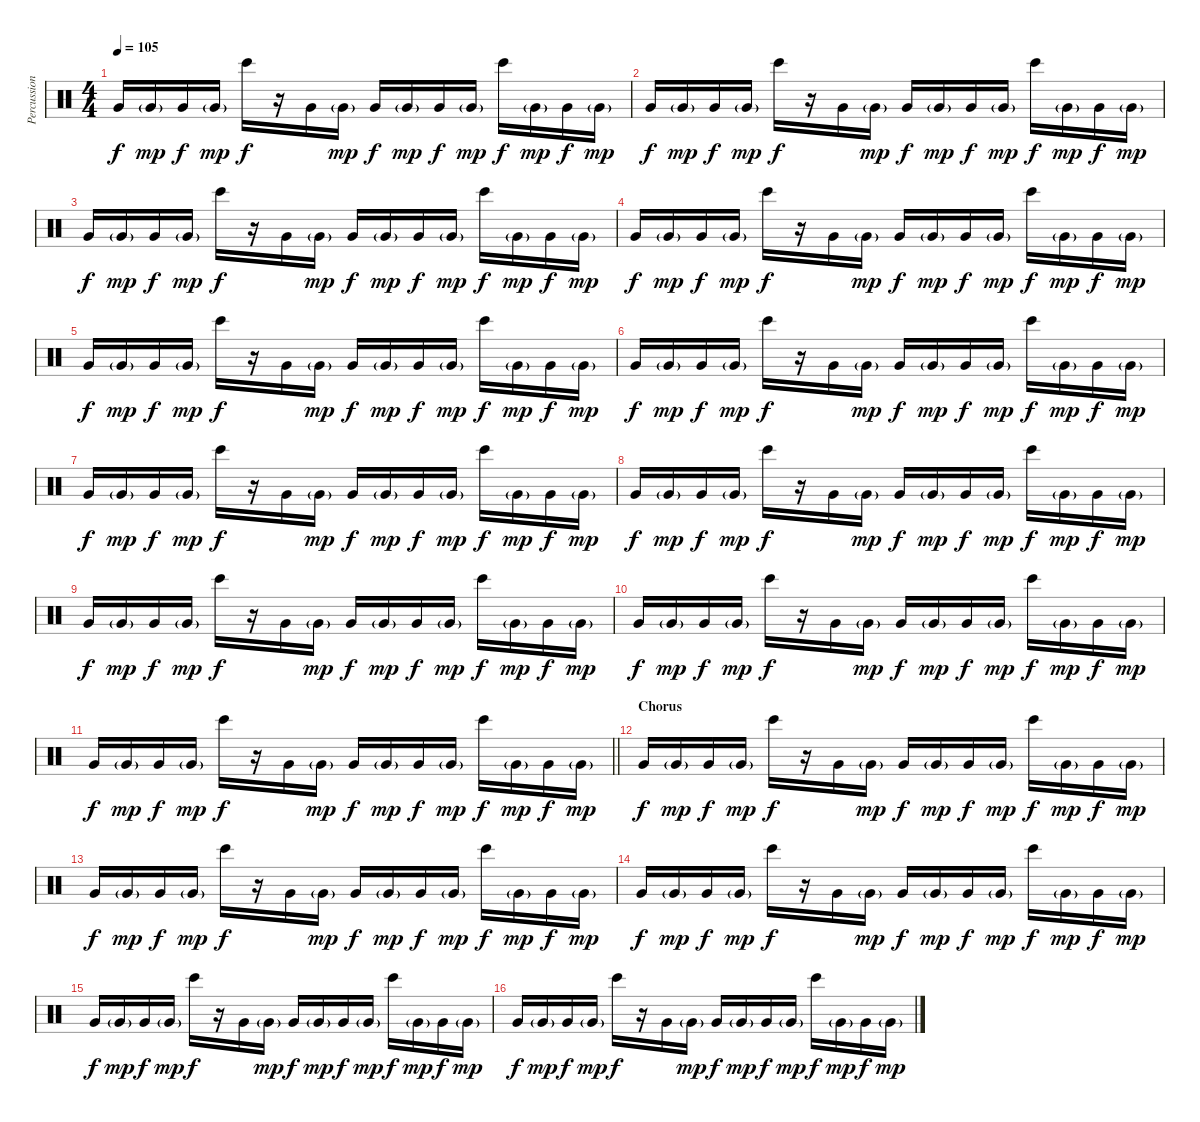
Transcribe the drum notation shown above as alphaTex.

\track ("Percussion" "Percussion") {instrument percussion}
\staff {score}
\articulation defaults
\ts (4 4)
\tempo 105
\clef neutral
\ks c "Very Low Tom (hit)".16{dy f} "Very Low Tom (hit)"{g}.16{dy mp} "Very Low Tom (hit)".16{dy f} "Very Low Tom (hit)"{g}.16{dy mp} "Bongo High (hit)".16{dy f}
r.16 "Very Low Tom (hit)".16 "Very Low Tom (hit)"{g}.16{dy mp} "Very Low Tom (hit)".16{dy f} "Very Low Tom (hit)"{g}.16{dy mp} "Very Low Tom (hit)".16{dy f} "Very Low Tom (hit)"{g}.16{dy mp} "Bongo High (hit)".16{dy f} "Very Low Tom (hit)"{g}.16{dy mp} "Very Low Tom (hit)".16{dy f} "Very Low Tom (hit)"{g}.16{dy mp} |
"Very Low Tom (hit)".16{dy f} "Very Low Tom (hit)"{g}.16{dy mp} "Very Low Tom (hit)".16{dy f} "Very Low Tom (hit)"{g}.16{dy mp} "Bongo High (hit)".16{dy f} r.16 "Very Low Tom (hit)".16 "Very Low Tom (hit)"{g}.16{dy mp} "Very Low Tom (hit)".16{dy f} "Very Low Tom (hit)"{g}.16{dy mp} "Very Low Tom (hit)".16{dy f} "Very Low Tom (hit)"{g}.16{dy mp} "Bongo High (hit)".16{dy f} "Very Low Tom (hit)"{g}.16{dy mp} "Very Low Tom (hit)".16{dy f} "Very Low Tom (hit)"{g}.16{dy mp} |
"Very Low Tom (hit)".16{dy f} "Very Low Tom (hit)"{g}.16{dy mp} "Very Low Tom (hit)".16{dy f} "Very Low Tom (hit)"{g}.16{dy mp} "Bongo High (hit)".16{dy f} r.16 "Very Low Tom (hit)".16 "Very Low Tom (hit)"{g}.16{dy mp} "Very Low Tom (hit)".16{dy f} "Very Low Tom (hit)"{g}.16{dy mp} "Very Low Tom (hit)".16{dy f} "Very Low Tom (hit)"{g}.16{dy mp} "Bongo High (hit)".16{dy f} "Very Low Tom (hit)"{g}.16{dy mp} "Very Low Tom (hit)".16{dy f} "Very Low Tom (hit)"{g}.16{dy mp} |
"Very Low Tom (hit)".16{dy f} "Very Low Tom (hit)"{g}.16{dy mp} "Very Low Tom (hit)".16{dy f} "Very Low Tom (hit)"{g}.16{dy mp} "Bongo High (hit)".16{dy f} r.16 "Very Low Tom (hit)".16 "Very Low Tom (hit)"{g}.16{dy mp} "Very Low Tom (hit)".16{dy f} "Very Low Tom (hit)"{g}.16{dy mp} "Very Low Tom (hit)".16{dy f} "Very Low Tom (hit)"{g}.16{dy mp} "Bongo High (hit)".16{dy f} "Very Low Tom (hit)"{g}.16{dy mp} "Very Low Tom (hit)".16{dy f} "Very Low Tom (hit)"{g}.16{dy mp} |
"Very Low Tom (hit)".16{dy f} "Very Low Tom (hit)"{g}.16{dy mp} "Very Low Tom (hit)".16{dy f} "Very Low Tom (hit)"{g}.16{dy mp} "Bongo High (hit)".16{dy f} r.16 "Very Low Tom (hit)".16 "Very Low Tom (hit)"{g}.16{dy mp} "Very Low Tom (hit)".16{dy f} "Very Low Tom (hit)"{g}.16{dy mp} "Very Low Tom (hit)".16{dy f} "Very Low Tom (hit)"{g}.16{dy mp} "Bongo High (hit)".16{dy f} "Very Low Tom (hit)"{g}.16{dy mp} "Very Low Tom (hit)".16{dy f} "Very Low Tom (hit)"{g}.16{dy mp} |
"Very Low Tom (hit)".16{dy f} "Very Low Tom (hit)"{g}.16{dy mp} "Very Low Tom (hit)".16{dy f} "Very Low Tom (hit)"{g}.16{dy mp} "Bongo High (hit)".16{dy f} r.16 "Very Low Tom (hit)".16 "Very Low Tom (hit)"{g}.16{dy mp} "Very Low Tom (hit)".16{dy f} "Very Low Tom (hit)"{g}.16{dy mp} "Very Low Tom (hit)".16{dy f} "Very Low Tom (hit)"{g}.16{dy mp} "Bongo High (hit)".16{dy f} "Very Low Tom (hit)"{g}.16{dy mp} "Very Low Tom (hit)".16{dy f} "Very Low Tom (hit)"{g}.16{dy mp} |
"Very Low Tom (hit)".16{dy f} "Very Low Tom (hit)"{g}.16{dy mp} "Very Low Tom (hit)".16{dy f} "Very Low Tom (hit)"{g}.16{dy mp} "Bongo High (hit)".16{dy f} r.16 "Very Low Tom (hit)".16 "Very Low Tom (hit)"{g}.16{dy mp} "Very Low Tom (hit)".16{dy f} "Very Low Tom (hit)"{g}.16{dy mp} "Very Low Tom (hit)".16{dy f} "Very Low Tom (hit)"{g}.16{dy mp} "Bongo High (hit)".16{dy f} "Very Low Tom (hit)"{g}.16{dy mp} "Very Low Tom (hit)".16{dy f} "Very Low Tom (hit)"{g}.16{dy mp} |
"Very Low Tom (hit)".16{dy f} "Very Low Tom (hit)"{g}.16{dy mp} "Very Low Tom (hit)".16{dy f} "Very Low Tom (hit)"{g}.16{dy mp} "Bongo High (hit)".16{dy f} r.16 "Very Low Tom (hit)".16 "Very Low Tom (hit)"{g}.16{dy mp} "Very Low Tom (hit)".16{dy f} "Very Low Tom (hit)"{g}.16{dy mp} "Very Low Tom (hit)".16{dy f} "Very Low Tom (hit)"{g}.16{dy mp} "Bongo High (hit)".16{dy f} "Very Low Tom (hit)"{g}.16{dy mp} "Very Low Tom (hit)".16{dy f} "Very Low Tom (hit)"{g}.16{dy mp} |
"Very Low Tom (hit)".16{dy f} "Very Low Tom (hit)"{g}.16{dy mp} "Very Low Tom (hit)".16{dy f} "Very Low Tom (hit)"{g}.16{dy mp} "Bongo High (hit)".16{dy f} r.16 "Very Low Tom (hit)".16 "Very Low Tom (hit)"{g}.16{dy mp} "Very Low Tom (hit)".16{dy f} "Very Low Tom (hit)"{g}.16{dy mp} "Very Low Tom (hit)".16{dy f} "Very Low Tom (hit)"{g}.16{dy mp} "Bongo High (hit)".16{dy f} "Very Low Tom (hit)"{g}.16{dy mp} "Very Low Tom (hit)".16{dy f} "Very Low Tom (hit)"{g}.16{dy mp} |
"Very Low Tom (hit)".16{dy f} "Very Low Tom (hit)"{g}.16{dy mp} "Very Low Tom (hit)".16{dy f} "Very Low Tom (hit)"{g}.16{dy mp} "Bongo High (hit)".16{dy f} r.16 "Very Low Tom (hit)".16 "Very Low Tom (hit)"{g}.16{dy mp} "Very Low Tom (hit)".16{dy f} "Very Low Tom (hit)"{g}.16{dy mp} "Very Low Tom (hit)".16{dy f} "Very Low Tom (hit)"{g}.16{dy mp} "Bongo High (hit)".16{dy f} "Very Low Tom (hit)"{g}.16{dy mp} "Very Low Tom (hit)".16{dy f} "Very Low Tom (hit)"{g}.16{dy mp} |
\barLineRight lightlight "Very Low Tom (hit)".16{dy f} "Very Low Tom (hit)"{g}.16{dy mp} "Very Low Tom (hit)".16{dy f} "Very Low Tom (hit)"{g}.16{dy mp} "Bongo High (hit)".16{dy f}
r.16 "Very Low Tom (hit)".16 "Very Low Tom (hit)"{g}.16{dy mp} "Very Low Tom (hit)".16{dy f} "Very Low Tom (hit)"{g}.16{dy mp} "Very Low Tom (hit)".16{dy f} "Very Low Tom (hit)"{g}.16{dy mp} "Bongo High (hit)".16{dy f} "Very Low Tom (hit)"{g}.16{dy mp} "Very Low Tom (hit)".16{dy f} "Very Low Tom (hit)"{g}.16{dy mp} |
\section ("" "Chorus")
"Very Low Tom (hit)".16{dy f} "Very Low Tom (hit)"{g}.16{dy mp} "Very Low Tom (hit)".16{dy f} "Very Low Tom (hit)"{g}.16{dy mp} "Bongo High (hit)".16{dy f} r.16 "Very Low Tom (hit)".16 "Very Low Tom (hit)"{g}.16{dy mp} "Very Low Tom (hit)".16{dy f} "Very Low Tom (hit)"{g}.16{dy mp} "Very Low Tom (hit)".16{dy f} "Very Low Tom (hit)"{g}.16{dy mp} "Bongo High (hit)".16{dy f} "Very Low Tom (hit)"{g}.16{dy mp} "Very Low Tom (hit)".16{dy f} "Very Low Tom (hit)"{g}.16{dy mp} |
"Very Low Tom (hit)".16{dy f} "Very Low Tom (hit)"{g}.16{dy mp} "Very Low Tom (hit)".16{dy f} "Very Low Tom (hit)"{g}.16{dy mp} "Bongo High (hit)".16{dy f} r.16 "Very Low Tom (hit)".16 "Very Low Tom (hit)"{g}.16{dy mp} "Very Low Tom (hit)".16{dy f} "Very Low Tom (hit)"{g}.16{dy mp} "Very Low Tom (hit)".16{dy f} "Very Low Tom (hit)"{g}.16{dy mp} "Bongo High (hit)".16{dy f} "Very Low Tom (hit)"{g}.16{dy mp} "Very Low Tom (hit)".16{dy f} "Very Low Tom (hit)"{g}.16{dy mp} |
"Very Low Tom (hit)".16{dy f} "Very Low Tom (hit)"{g}.16{dy mp} "Very Low Tom (hit)".16{dy f} "Very Low Tom (hit)"{g}.16{dy mp} "Bongo High (hit)".16{dy f} r.16 "Very Low Tom (hit)".16 "Very Low Tom (hit)"{g}.16{dy mp} "Very Low Tom (hit)".16{dy f} "Very Low Tom (hit)"{g}.16{dy mp} "Very Low Tom (hit)".16{dy f} "Very Low Tom (hit)"{g}.16{dy mp} "Bongo High (hit)".16{dy f} "Very Low Tom (hit)"{g}.16{dy mp} "Very Low Tom (hit)".16{dy f} "Very Low Tom (hit)"{g}.16{dy mp} |
"Very Low Tom (hit)".16{dy f} "Very Low Tom (hit)"{g}.16{dy mp} "Very Low Tom (hit)".16{dy f} "Very Low Tom (hit)"{g}.16{dy mp} "Bongo High (hit)".16{dy f} r.16 "Very Low Tom (hit)".16 "Very Low Tom (hit)"{g}.16{dy mp} "Very Low Tom (hit)".16{dy f} "Very Low Tom (hit)"{g}.16{dy mp} "Very Low Tom (hit)".16{dy f} "Very Low Tom (hit)"{g}.16{dy mp} "Bongo High (hit)".16{dy f} "Very Low Tom (hit)"{g}.16{dy mp} "Very Low Tom (hit)".16{dy f} "Very Low Tom (hit)"{g}.16{dy mp} |
"Very Low Tom (hit)".16{dy f} "Very Low Tom (hit)"{g}.16{dy mp} "Very Low Tom (hit)".16{dy f} "Very Low Tom (hit)"{g}.16{dy mp} "Bongo High (hit)".16{dy f} r.16 "Very Low Tom (hit)".16 "Very Low Tom (hit)"{g}.16{dy mp} "Very Low Tom (hit)".16{dy f} "Very Low Tom (hit)"{g}.16{dy mp} "Very Low Tom (hit)".16{dy f} "Very Low Tom (hit)"{g}.16{dy mp} "Bongo High (hit)".16{dy f} "Very Low Tom (hit)"{g}.16{dy mp} "Very Low Tom (hit)".16{dy f} "Very Low Tom (hit)"{g}.16{dy mp}
